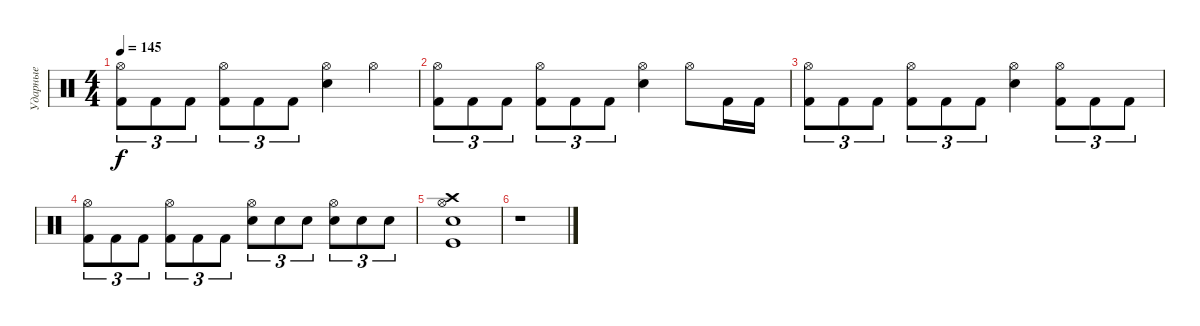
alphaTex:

\track ("Ударные" "Ударные") {instrument percussion}
\staff {score}
\articulation defaults
\ts (4 4)
\tempo 145
\clef neutral
\ks c
("Hi-Hat (open)" "Kick (hit) 2").8{tu (3 2) dy f} "Kick (hit) 2".8{tu (3 2)} "Kick (hit) 2".8{tu (3 2)} ("Hi-Hat (open)" "Kick (hit) 2").8{tu (3 2)} "Kick (hit) 2".8{tu (3 2)} "Kick (hit) 2".8{tu (3 2)} ("Hi-Hat (open)" "Snare (hit) 2").4 "Hi-Hat (open)".4 |
("Hi-Hat (open)" "Kick (hit) 2").8{tu (3 2)} "Kick (hit) 2".8{tu (3 2)} "Kick (hit) 2".8{tu (3 2)} ("Hi-Hat (open)" "Kick (hit) 2").8{tu (3 2)} "Kick (hit) 2".8{tu (3 2)} "Kick (hit) 2".8{tu (3 2)} ("Hi-Hat (open)" "Snare (hit) 2").4 "Hi-Hat (open)".8 "Kick (hit) 2".16 "Kick (hit) 2".16 |
("Hi-Hat (open)" "Kick (hit) 2").8{tu (3 2)} "Kick (hit) 2".8{tu (3 2)} "Kick (hit) 2".8{tu (3 2)} ("Hi-Hat (open)" "Kick (hit) 2").8{tu (3 2)} "Kick (hit) 2".8{tu (3 2)} "Kick (hit) 2".8{tu (3 2)} ("Hi-Hat (open)" "Snare (hit) 2").4 ("Hi-Hat (open)" "Kick (hit) 2").8{tu (3 2)} "Kick (hit) 2".8{tu (3 2)} "Kick (hit) 2".8{tu (3 2)} |
("Hi-Hat (open)" "Kick (hit) 2").8{tu (3 2)} "Kick (hit) 2".8{tu (3 2)} "Kick (hit) 2".8{tu (3 2)} ("Hi-Hat (open)" "Kick (hit) 2").8{tu (3 2)} "Kick (hit) 2".8{tu (3 2)} "Kick (hit) 2".8{tu (3 2)} ("Hi-Hat (open)" "Snare (hit) 2").8{tu (3 2)} "Snare (hit) 2".8{tu (3 2)} "Snare (hit) 2".8{tu (3 2)} ("Hi-Hat (open)" "Snare (hit) 2").8{tu (3 2)} "Snare (hit) 2".8{tu (3 2)} "Snare (hit) 2".8{tu (3 2)} |
("Snare (hit) 2" "Crash high (hit)" "Hi-Hat (open)" "Kick (hit)").1 |
r.1
